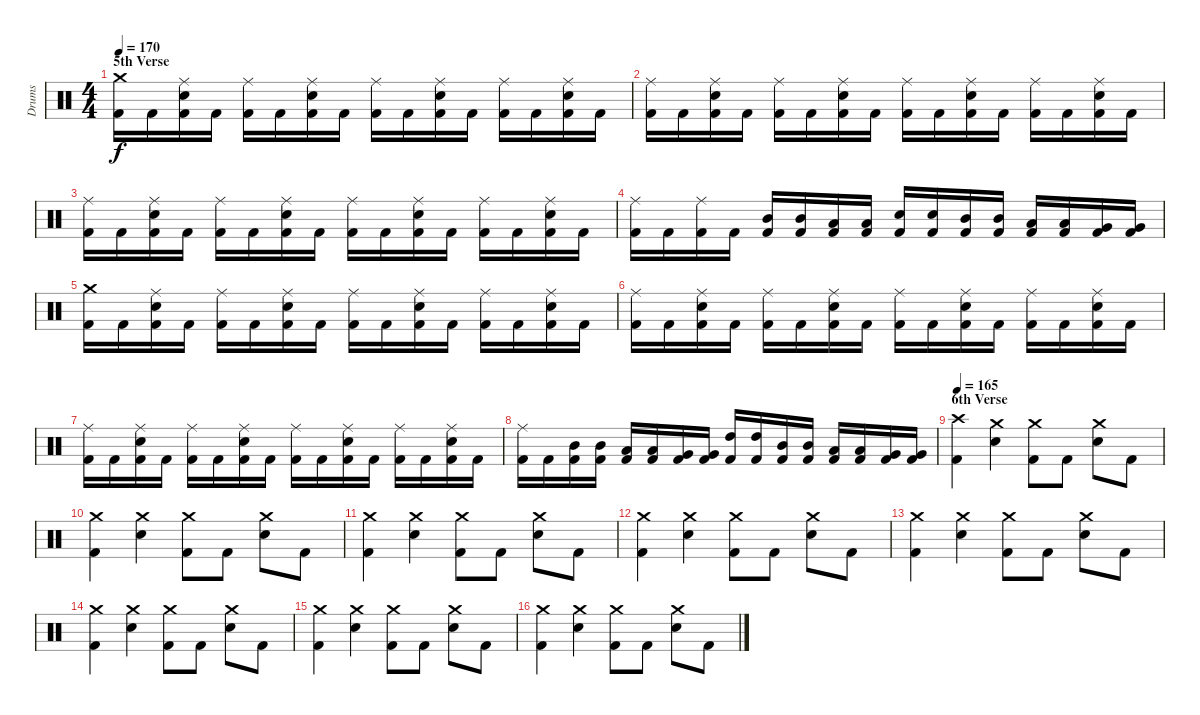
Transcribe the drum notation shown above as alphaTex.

\track ("Drums" "Drums") {instrument percussion}
\staff {score}
\articulation defaults
\ts (4 4)
\section ("" "5th Verse")
\tempo 170
\clef neutral
\ks c
("Kick (hit) 2" "Crash medium (hit)").16{dy f} "Kick (hit) 2".16 ("Kick (hit) 2" "Electric Snare (hit)" "Ride (middle)").16 "Kick (hit) 2".16 ("Kick (hit) 2" "Ride (middle)").16 "Kick (hit) 2".16 ("Kick (hit) 2" "Electric Snare (hit)" "Ride (middle)").16 "Kick (hit) 2".16 ("Kick (hit) 2" "Ride (middle)").16 "Kick (hit) 2".16 ("Kick (hit) 2" "Electric Snare (hit)" "Ride (middle)").16 "Kick (hit) 2".16 ("Kick (hit) 2" "Ride (middle)").16 "Kick (hit) 2".16 ("Kick (hit) 2" "Electric Snare (hit)" "Ride (middle)").16 "Kick (hit) 2".16 |
("Kick (hit) 2" "Ride (middle)").16 "Kick (hit) 2".16 ("Kick (hit) 2" "Electric Snare (hit)" "Ride (middle)").16 "Kick (hit) 2".16 ("Kick (hit) 2" "Ride (middle)").16 "Kick (hit) 2".16 ("Kick (hit) 2" "Electric Snare (hit)" "Ride (middle)").16 "Kick (hit) 2".16 ("Kick (hit) 2" "Ride (middle)").16 "Kick (hit) 2".16 ("Kick (hit) 2" "Electric Snare (hit)" "Ride (middle)").16 "Kick (hit) 2".16 ("Kick (hit) 2" "Ride (middle)").16 "Kick (hit) 2".16 ("Kick (hit) 2" "Electric Snare (hit)" "Ride (middle)").16 "Kick (hit) 2".16 |
("Kick (hit) 2" "Ride (middle)").16 "Kick (hit) 2".16 ("Kick (hit) 2" "Electric Snare (hit)" "Ride (middle)").16 "Kick (hit) 2".16 ("Kick (hit) 2" "Ride (middle)").16 "Kick (hit) 2".16 ("Kick (hit) 2" "Electric Snare (hit)" "Ride (middle)").16 "Kick (hit) 2".16 ("Kick (hit) 2" "Ride (middle)").16 "Kick (hit) 2".16 ("Kick (hit) 2" "Electric Snare (hit)" "Ride (middle)").16 "Kick (hit) 2".16 ("Kick (hit) 2" "Ride (middle)").16 "Kick (hit) 2".16 ("Kick (hit) 2" "Electric Snare (hit)" "Ride (middle)").16 "Kick (hit) 2".16 |
("Kick (hit) 2" "Ride (middle)").16 "Kick (hit) 2".16 ("Kick (hit) 2" "Ride (middle)").16 "Kick (hit) 2".16 ("Kick (hit) 2" "Mid Tom (hit)").16 ("Kick (hit) 2" "Mid Tom (hit)").16 ("Kick (hit) 2" "Low Tom (hit)").16 ("Kick (hit) 2" "Low Tom (hit)").16 ("Kick (hit) 2" "Electric Snare (hit)").16 ("Kick (hit) 2" "Electric Snare (hit)").16 ("Kick (hit) 2" "Mid Tom (hit)").16 ("Kick (hit) 2" "Mid Tom (hit)").16 ("Kick (hit) 2" "Low Tom (hit)").16 ("Kick (hit) 2" "Low Tom (hit)").16 ("Kick (hit) 2" "Very Low Tom (hit)").16 ("Kick (hit) 2" "Very Low Tom (hit)").16 |
("Kick (hit) 2" "Crash medium (hit)").16 "Kick (hit) 2".16 ("Kick (hit) 2" "Electric Snare (hit)" "Ride (middle)").16 "Kick (hit) 2".16 ("Kick (hit) 2" "Ride (middle)").16 "Kick (hit) 2".16 ("Kick (hit) 2" "Electric Snare (hit)" "Ride (middle)").16 "Kick (hit) 2".16 ("Kick (hit) 2" "Ride (middle)").16 "Kick (hit) 2".16 ("Kick (hit) 2" "Electric Snare (hit)" "Ride (middle)").16 "Kick (hit) 2".16 ("Kick (hit) 2" "Ride (middle)").16 "Kick (hit) 2".16 ("Kick (hit) 2" "Electric Snare (hit)" "Ride (middle)").16 "Kick (hit) 2".16 |
("Kick (hit) 2" "Ride (middle)").16 "Kick (hit) 2".16 ("Kick (hit) 2" "Electric Snare (hit)" "Ride (middle)").16 "Kick (hit) 2".16 ("Kick (hit) 2" "Ride (middle)").16 "Kick (hit) 2".16 ("Kick (hit) 2" "Electric Snare (hit)" "Ride (middle)").16 "Kick (hit) 2".16 ("Kick (hit) 2" "Ride (middle)").16 "Kick (hit) 2".16 ("Kick (hit) 2" "Electric Snare (hit)" "Ride (middle)").16 "Kick (hit) 2".16 ("Kick (hit) 2" "Ride (middle)").16 "Kick (hit) 2".16 ("Kick (hit) 2" "Electric Snare (hit)" "Ride (middle)").16 "Kick (hit) 2".16 |
("Kick (hit) 2" "Ride (middle)").16 "Kick (hit) 2".16 ("Kick (hit) 2" "Electric Snare (hit)" "Ride (middle)").16 "Kick (hit) 2".16 ("Kick (hit) 2" "Ride (middle)").16 "Kick (hit) 2".16 ("Kick (hit) 2" "Electric Snare (hit)" "Ride (middle)").16 "Kick (hit) 2".16 ("Kick (hit) 2" "Ride (middle)").16 "Kick (hit) 2".16 ("Kick (hit) 2" "Electric Snare (hit)" "Ride (middle)").16 "Kick (hit) 2".16 ("Kick (hit) 2" "Ride (middle)").16 "Kick (hit) 2".16 ("Kick (hit) 2" "Electric Snare (hit)" "Ride (middle)").16 "Kick (hit) 2".16 |
("Kick (hit) 2" "Ride (middle)").16 "Kick (hit) 2".16 ("Kick (hit) 2" "Mid Tom (hit)").16 ("Kick (hit) 2" "Mid Tom (hit)").16 ("Kick (hit) 2" "Low Tom (hit)").16 ("Kick (hit) 2" "Low Tom (hit)").16 ("Kick (hit) 2" "Very Low Tom (hit)").16 ("Kick (hit) 2" "Very Low Tom (hit)").16 ("Kick (hit) 2" "High Tom (hit)").16 ("Kick (hit) 2" "High Tom (hit)").16 ("Kick (hit) 2" "Mid Tom (hit)").16 ("Kick (hit) 2" "Mid Tom (hit)").16 ("Kick (hit) 2" "Low Tom (hit)").16 ("Kick (hit) 2" "Low Tom (hit)").16 ("Kick (hit) 2" "Very Low Tom (hit)").16 ("Kick (hit) 2" "Very Low Tom (hit)").16 |
\section ("" "6th Verse")
\tempo 165
("Kick (hit) 2" "Crash high (hit)").4 ("Electric Snare (hit)" "Crash medium (hit)").4 ("Kick (hit) 2" "Crash medium (hit)").8 "Kick (hit) 2".8 ("Electric Snare (hit)" "Crash medium (hit)").8 "Kick (hit) 2".8 |
("Kick (hit) 2" "Crash medium (hit)").4 ("Electric Snare (hit)" "Crash medium (hit)").4 ("Kick (hit) 2" "Crash medium (hit)").8 "Kick (hit) 2".8 ("Electric Snare (hit)" "Crash medium (hit)").8 "Kick (hit) 2".8 |
("Kick (hit) 2" "Crash medium (hit)").4 ("Electric Snare (hit)" "Crash medium (hit)").4 ("Kick (hit) 2" "Crash medium (hit)").8 "Kick (hit) 2".8 ("Electric Snare (hit)" "Crash medium (hit)").8 "Kick (hit) 2".8 |
("Kick (hit) 2" "Crash medium (hit)").4 ("Electric Snare (hit)" "Crash medium (hit)").4 ("Kick (hit) 2" "Crash medium (hit)").8 "Kick (hit) 2".8 ("Electric Snare (hit)" "Crash medium (hit)").8 "Kick (hit) 2".8 |
("Kick (hit) 2" "Crash medium (hit)").4 ("Electric Snare (hit)" "Crash medium (hit)").4 ("Kick (hit) 2" "Crash medium (hit)").8 "Kick (hit) 2".8 ("Electric Snare (hit)" "Crash medium (hit)").8 "Kick (hit) 2".8 |
("Kick (hit) 2" "Crash medium (hit)").4 ("Electric Snare (hit)" "Crash medium (hit)").4 ("Kick (hit) 2" "Crash medium (hit)").8 "Kick (hit) 2".8 ("Electric Snare (hit)" "Crash medium (hit)").8 "Kick (hit) 2".8 |
("Kick (hit) 2" "Crash medium (hit)").4 ("Electric Snare (hit)" "Crash medium (hit)").4 ("Kick (hit) 2" "Crash medium (hit)").8 "Kick (hit) 2".8 ("Electric Snare (hit)" "Crash medium (hit)").8 "Kick (hit) 2".8 |
("Kick (hit) 2" "Crash medium (hit)").4 ("Electric Snare (hit)" "Crash medium (hit)").4 ("Kick (hit) 2" "Crash medium (hit)").8 "Kick (hit) 2".8 ("Electric Snare (hit)" "Crash medium (hit)").8 "Kick (hit) 2".8
